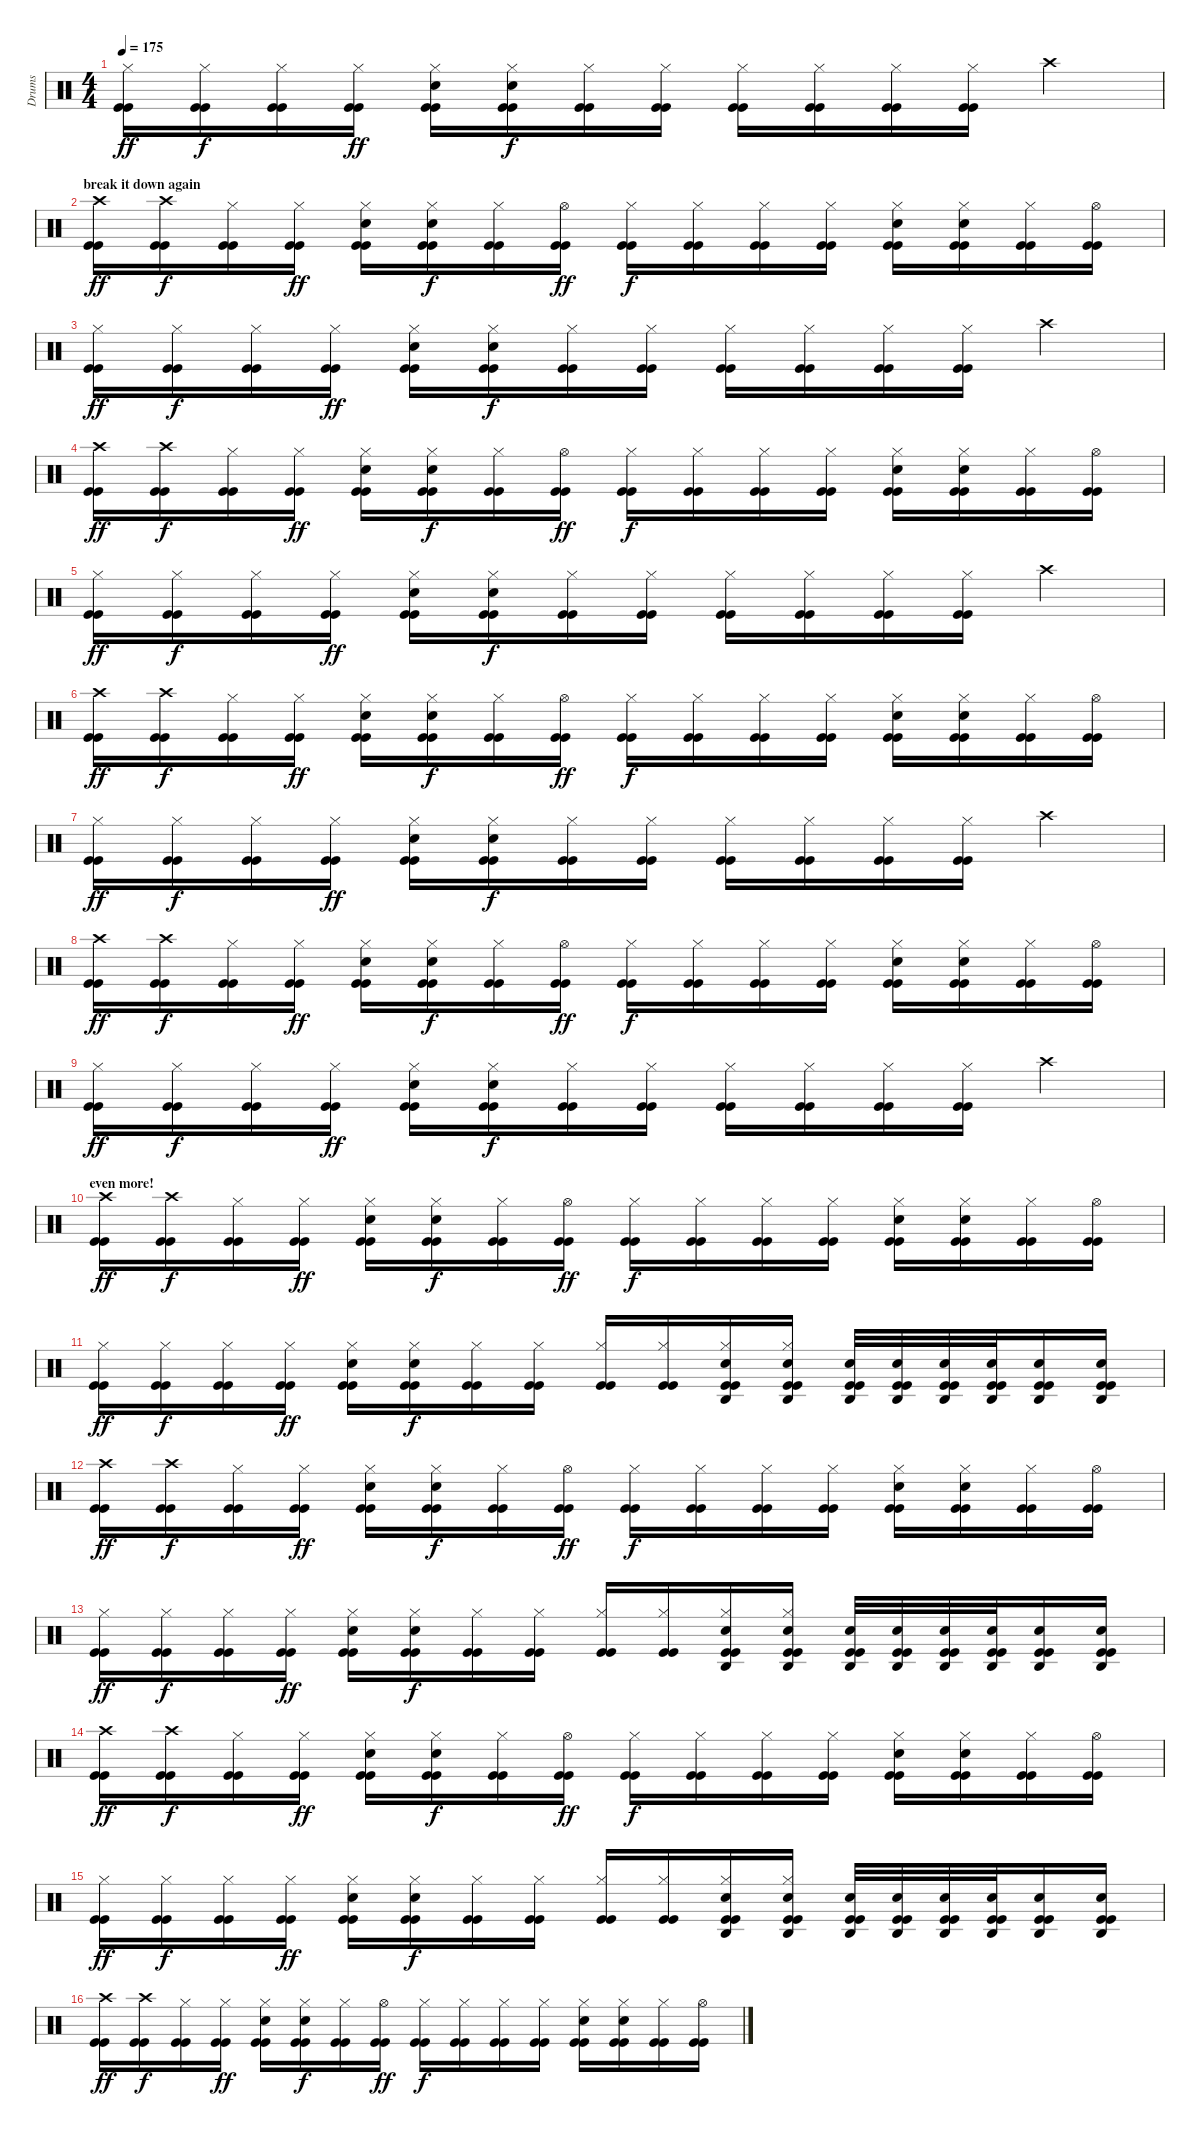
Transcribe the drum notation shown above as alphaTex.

\track ("Drums" "Drums") {instrument percussion}
\staff {score}
\articulation defaults
\ts (4 4)
\tempo 175
\clef neutral
\ks c
("Hi-Hat (closed)" "Kick (hit)" "Kick (hit)").16{dy ff} ("Hi-Hat (closed)" "Kick (hit)" "Kick (hit)").16{dy f} ("Hi-Hat (closed)" "Kick (hit)" "Kick (hit)").16 ("Hi-Hat (closed)" "Kick (hit)" "Kick (hit)").16{dy ff} ("Electric Snare (hit)" "Hi-Hat (closed)" "Kick (hit)" "Kick (hit)").16 ("Electric Snare (hit)" "Hi-Hat (closed)" "Kick (hit)" "Kick (hit)").16{dy f} ("Hi-Hat (closed)" "Kick (hit)" "Kick (hit)").16 ("Hi-Hat (closed)" "Kick (hit)" "Kick (hit)").16 ("Hi-Hat (closed)" "Kick (hit)" "Kick (hit)").16 ("Hi-Hat (closed)" "Kick (hit)" "Kick (hit)").16 ("Hi-Hat (closed)" "Kick (hit)" "Kick (hit)").16 ("Hi-Hat (closed)" "Kick (hit)" "Kick (hit)").16 "Crash high (hit)".4 |
\section ("" "break it down again")
("Crash high (hit)" "Kick (hit)" "Kick (hit)").16{dy ff} ("Crash high (hit)" "Kick (hit)" "Kick (hit)").16{dy f} ("Hi-Hat (closed)" "Kick (hit)" "Kick (hit)").16 ("Hi-Hat (closed)" "Kick (hit)" "Kick (hit)").16{dy ff} ("Electric Snare (hit)" "Hi-Hat (closed)" "Kick (hit)" "Kick (hit)").16 ("Electric Snare (hit)" "Hi-Hat (closed)" "Kick (hit)" "Kick (hit)").16{dy f} ("Hi-Hat (closed)" "Kick (hit)" "Kick (hit)").16 ("Hi-Hat (open)" "Kick (hit)" "Kick (hit)").16{dy ff} ("Hi-Hat (closed)" "Kick (hit)" "Kick (hit)").16{dy f} ("Hi-Hat (closed)" "Kick (hit)" "Kick (hit)").16 ("Hi-Hat (closed)" "Kick (hit)" "Kick (hit)").16 ("Hi-Hat (closed)" "Kick (hit)" "Kick (hit)").16 ("Electric Snare (hit)" "Hi-Hat (closed)" "Kick (hit)" "Kick (hit)").16 ("Electric Snare (hit)" "Hi-Hat (closed)" "Kick (hit)" "Kick (hit)").16 ("Hi-Hat (closed)" "Kick (hit)" "Kick (hit)").16 ("Hi-Hat (open)" "Kick (hit)" "Kick (hit)").16 |
("Hi-Hat (closed)" "Kick (hit)" "Kick (hit)").16{dy ff} ("Hi-Hat (closed)" "Kick (hit)" "Kick (hit)").16{dy f} ("Hi-Hat (closed)" "Kick (hit)" "Kick (hit)").16 ("Hi-Hat (closed)" "Kick (hit)" "Kick (hit)").16{dy ff} ("Electric Snare (hit)" "Hi-Hat (closed)" "Kick (hit)" "Kick (hit)").16 ("Electric Snare (hit)" "Hi-Hat (closed)" "Kick (hit)" "Kick (hit)").16{dy f} ("Hi-Hat (closed)" "Kick (hit)" "Kick (hit)").16 ("Hi-Hat (closed)" "Kick (hit)" "Kick (hit)").16 ("Hi-Hat (closed)" "Kick (hit)" "Kick (hit)").16 ("Hi-Hat (closed)" "Kick (hit)" "Kick (hit)").16 ("Hi-Hat (closed)" "Kick (hit)" "Kick (hit)").16 ("Hi-Hat (closed)" "Kick (hit)" "Kick (hit)").16 "Crash high (hit)".4 |
("Crash high (hit)" "Kick (hit)" "Kick (hit)").16{dy ff} ("Crash high (hit)" "Kick (hit)" "Kick (hit)").16{dy f} ("Hi-Hat (closed)" "Kick (hit)" "Kick (hit)").16 ("Hi-Hat (closed)" "Kick (hit)" "Kick (hit)").16{dy ff} ("Electric Snare (hit)" "Hi-Hat (closed)" "Kick (hit)" "Kick (hit)").16 ("Electric Snare (hit)" "Hi-Hat (closed)" "Kick (hit)" "Kick (hit)").16{dy f} ("Hi-Hat (closed)" "Kick (hit)" "Kick (hit)").16 ("Hi-Hat (open)" "Kick (hit)" "Kick (hit)").16{dy ff} ("Hi-Hat (closed)" "Kick (hit)" "Kick (hit)").16{dy f} ("Hi-Hat (closed)" "Kick (hit)" "Kick (hit)").16 ("Hi-Hat (closed)" "Kick (hit)" "Kick (hit)").16 ("Hi-Hat (closed)" "Kick (hit)" "Kick (hit)").16 ("Electric Snare (hit)" "Hi-Hat (closed)" "Kick (hit)" "Kick (hit)").16 ("Electric Snare (hit)" "Hi-Hat (closed)" "Kick (hit)" "Kick (hit)").16 ("Hi-Hat (closed)" "Kick (hit)" "Kick (hit)").16 ("Hi-Hat (open)" "Kick (hit)" "Kick (hit)").16 |
("Hi-Hat (closed)" "Kick (hit)" "Kick (hit)").16{dy ff} ("Hi-Hat (closed)" "Kick (hit)" "Kick (hit)").16{dy f} ("Hi-Hat (closed)" "Kick (hit)" "Kick (hit)").16 ("Hi-Hat (closed)" "Kick (hit)" "Kick (hit)").16{dy ff} ("Electric Snare (hit)" "Hi-Hat (closed)" "Kick (hit)" "Kick (hit)").16 ("Electric Snare (hit)" "Hi-Hat (closed)" "Kick (hit)" "Kick (hit)").16{dy f} ("Hi-Hat (closed)" "Kick (hit)" "Kick (hit)").16 ("Hi-Hat (closed)" "Kick (hit)" "Kick (hit)").16 ("Hi-Hat (closed)" "Kick (hit)" "Kick (hit)").16 ("Hi-Hat (closed)" "Kick (hit)" "Kick (hit)").16 ("Hi-Hat (closed)" "Kick (hit)" "Kick (hit)").16 ("Hi-Hat (closed)" "Kick (hit)" "Kick (hit)").16 "Crash high (hit)".4 |
("Crash high (hit)" "Kick (hit)" "Kick (hit)").16{dy ff} ("Crash high (hit)" "Kick (hit)" "Kick (hit)").16{dy f} ("Hi-Hat (closed)" "Kick (hit)" "Kick (hit)").16 ("Hi-Hat (closed)" "Kick (hit)" "Kick (hit)").16{dy ff} ("Electric Snare (hit)" "Hi-Hat (closed)" "Kick (hit)" "Kick (hit)").16 ("Electric Snare (hit)" "Hi-Hat (closed)" "Kick (hit)" "Kick (hit)").16{dy f} ("Hi-Hat (closed)" "Kick (hit)" "Kick (hit)").16 ("Hi-Hat (open)" "Kick (hit)" "Kick (hit)").16{dy ff} ("Hi-Hat (closed)" "Kick (hit)" "Kick (hit)").16{dy f} ("Hi-Hat (closed)" "Kick (hit)" "Kick (hit)").16 ("Hi-Hat (closed)" "Kick (hit)" "Kick (hit)").16 ("Hi-Hat (closed)" "Kick (hit)" "Kick (hit)").16 ("Electric Snare (hit)" "Hi-Hat (closed)" "Kick (hit)" "Kick (hit)").16 ("Electric Snare (hit)" "Hi-Hat (closed)" "Kick (hit)" "Kick (hit)").16 ("Hi-Hat (closed)" "Kick (hit)" "Kick (hit)").16 ("Hi-Hat (open)" "Kick (hit)" "Kick (hit)").16 |
("Hi-Hat (closed)" "Kick (hit)" "Kick (hit)").16{dy ff} ("Hi-Hat (closed)" "Kick (hit)" "Kick (hit)").16{dy f} ("Hi-Hat (closed)" "Kick (hit)" "Kick (hit)").16 ("Hi-Hat (closed)" "Kick (hit)" "Kick (hit)").16{dy ff} ("Electric Snare (hit)" "Hi-Hat (closed)" "Kick (hit)" "Kick (hit)").16 ("Electric Snare (hit)" "Hi-Hat (closed)" "Kick (hit)" "Kick (hit)").16{dy f} ("Hi-Hat (closed)" "Kick (hit)" "Kick (hit)").16 ("Hi-Hat (closed)" "Kick (hit)" "Kick (hit)").16 ("Hi-Hat (closed)" "Kick (hit)" "Kick (hit)").16 ("Hi-Hat (closed)" "Kick (hit)" "Kick (hit)").16 ("Hi-Hat (closed)" "Kick (hit)" "Kick (hit)").16 ("Hi-Hat (closed)" "Kick (hit)" "Kick (hit)").16 "Crash high (hit)".4 |
("Crash high (hit)" "Kick (hit)" "Kick (hit)").16{dy ff} ("Crash high (hit)" "Kick (hit)" "Kick (hit)").16{dy f} ("Hi-Hat (closed)" "Kick (hit)" "Kick (hit)").16 ("Hi-Hat (closed)" "Kick (hit)" "Kick (hit)").16{dy ff} ("Electric Snare (hit)" "Hi-Hat (closed)" "Kick (hit)" "Kick (hit)").16 ("Electric Snare (hit)" "Hi-Hat (closed)" "Kick (hit)" "Kick (hit)").16{dy f} ("Hi-Hat (closed)" "Kick (hit)" "Kick (hit)").16 ("Hi-Hat (open)" "Kick (hit)" "Kick (hit)").16{dy ff} ("Hi-Hat (closed)" "Kick (hit)" "Kick (hit)").16{dy f} ("Hi-Hat (closed)" "Kick (hit)" "Kick (hit)").16 ("Hi-Hat (closed)" "Kick (hit)" "Kick (hit)").16 ("Hi-Hat (closed)" "Kick (hit)" "Kick (hit)").16 ("Electric Snare (hit)" "Hi-Hat (closed)" "Kick (hit)" "Kick (hit)").16 ("Electric Snare (hit)" "Hi-Hat (closed)" "Kick (hit)" "Kick (hit)").16 ("Hi-Hat (closed)" "Kick (hit)" "Kick (hit)").16 ("Hi-Hat (open)" "Kick (hit)" "Kick (hit)").16 |
("Hi-Hat (closed)" "Kick (hit)" "Kick (hit)").16{dy ff} ("Hi-Hat (closed)" "Kick (hit)" "Kick (hit)").16{dy f} ("Hi-Hat (closed)" "Kick (hit)" "Kick (hit)").16 ("Hi-Hat (closed)" "Kick (hit)" "Kick (hit)").16{dy ff} ("Electric Snare (hit)" "Hi-Hat (closed)" "Kick (hit)" "Kick (hit)").16 ("Electric Snare (hit)" "Hi-Hat (closed)" "Kick (hit)" "Kick (hit)").16{dy f} ("Hi-Hat (closed)" "Kick (hit)" "Kick (hit)").16 ("Hi-Hat (closed)" "Kick (hit)" "Kick (hit)").16 ("Hi-Hat (closed)" "Kick (hit)" "Kick (hit)").16 ("Hi-Hat (closed)" "Kick (hit)" "Kick (hit)").16 ("Hi-Hat (closed)" "Kick (hit)" "Kick (hit)").16 ("Hi-Hat (closed)" "Kick (hit)" "Kick (hit)").16 "Crash high (hit)".4 |
\section ("" "even more!")
("Crash high (hit)" "Kick (hit)" "Kick (hit)").16{dy ff} ("Crash high (hit)" "Kick (hit)" "Kick (hit)").16{dy f} ("Hi-Hat (closed)" "Kick (hit)" "Kick (hit)").16 ("Hi-Hat (closed)" "Kick (hit)" "Kick (hit)").16{dy ff} ("Electric Snare (hit)" "Hi-Hat (closed)" "Kick (hit)" "Kick (hit)").16 ("Electric Snare (hit)" "Hi-Hat (closed)" "Kick (hit)" "Kick (hit)").16{dy f} ("Hi-Hat (closed)" "Kick (hit)" "Kick (hit)").16 ("Hi-Hat (open)" "Kick (hit)" "Kick (hit)").16{dy ff} ("Hi-Hat (closed)" "Kick (hit)" "Kick (hit)").16{dy f} ("Hi-Hat (closed)" "Kick (hit)" "Kick (hit)").16 ("Hi-Hat (closed)" "Kick (hit)" "Kick (hit)").16 ("Hi-Hat (closed)" "Kick (hit)" "Kick (hit)").16 ("Electric Snare (hit)" "Hi-Hat (closed)" "Kick (hit)" "Kick (hit)").16 ("Electric Snare (hit)" "Hi-Hat (closed)" "Kick (hit)" "Kick (hit)").16 ("Hi-Hat (closed)" "Kick (hit)" "Kick (hit)").16 ("Hi-Hat (open)" "Kick (hit)" "Kick (hit)").16 |
("Hi-Hat (closed)" "Kick (hit)" "Kick (hit)").16{dy ff} ("Hi-Hat (closed)" "Kick (hit)" "Kick (hit)").16{dy f} ("Hi-Hat (closed)" "Kick (hit)" "Kick (hit)").16 ("Hi-Hat (closed)" "Kick (hit)" "Kick (hit)").16{dy ff} ("Electric Snare (hit)" "Hi-Hat (closed)" "Kick (hit)" "Kick (hit)").16 ("Electric Snare (hit)" "Hi-Hat (closed)" "Kick (hit)" "Kick (hit)").16{dy f} ("Hi-Hat (closed)" "Kick (hit)" "Kick (hit)").16 ("Hi-Hat (closed)" "Kick (hit)" "Kick (hit)").16 ("Hi-Hat (closed)" "Kick (hit)" "Kick (hit)").16 ("Hi-Hat (closed)" "Kick (hit)" "Kick (hit)").16 ("Agogo high (hit)" "Electric Snare (hit)" "Hi-Hat (closed)" "Kick (hit)" "Kick (hit)").16 ("Agogo high (hit)" "Electric Snare (hit)" "Hi-Hat (closed)" "Kick (hit)" "Kick (hit)").16 ("Agogo high (hit)" "Electric Snare (hit)" "Kick (hit)" "Kick (hit)").32 ("Agogo high (hit)" "Electric Snare (hit)" "Kick (hit)" "Kick (hit)").32 ("Agogo high (hit)" "Electric Snare (hit)" "Kick (hit)" "Kick (hit)").32 ("Agogo high (hit)" "Electric Snare (hit)" "Kick (hit)" "Kick (hit)").32 ("Agogo high (hit)" "Electric Snare (hit)" "Kick (hit)" "Kick (hit)").16 ("Agogo high (hit)" "Electric Snare (hit)" "Kick (hit)" "Kick (hit)").16 |
("Crash high (hit)" "Kick (hit)" "Kick (hit)").16{dy ff} ("Crash high (hit)" "Kick (hit)" "Kick (hit)").16{dy f} ("Hi-Hat (closed)" "Kick (hit)" "Kick (hit)").16 ("Hi-Hat (closed)" "Kick (hit)" "Kick (hit)").16{dy ff} ("Electric Snare (hit)" "Hi-Hat (closed)" "Kick (hit)" "Kick (hit)").16 ("Electric Snare (hit)" "Hi-Hat (closed)" "Kick (hit)" "Kick (hit)").16{dy f} ("Hi-Hat (closed)" "Kick (hit)" "Kick (hit)").16 ("Hi-Hat (open)" "Kick (hit)" "Kick (hit)").16{dy ff} ("Hi-Hat (closed)" "Kick (hit)" "Kick (hit)").16{dy f} ("Hi-Hat (closed)" "Kick (hit)" "Kick (hit)").16 ("Hi-Hat (closed)" "Kick (hit)" "Kick (hit)").16 ("Hi-Hat (closed)" "Kick (hit)" "Kick (hit)").16 ("Electric Snare (hit)" "Hi-Hat (closed)" "Kick (hit)" "Kick (hit)").16 ("Electric Snare (hit)" "Hi-Hat (closed)" "Kick (hit)" "Kick (hit)").16 ("Hi-Hat (closed)" "Kick (hit)" "Kick (hit)").16 ("Hi-Hat (open)" "Kick (hit)" "Kick (hit)").16 |
("Hi-Hat (closed)" "Kick (hit)" "Kick (hit)").16{dy ff} ("Hi-Hat (closed)" "Kick (hit)" "Kick (hit)").16{dy f} ("Hi-Hat (closed)" "Kick (hit)" "Kick (hit)").16 ("Hi-Hat (closed)" "Kick (hit)" "Kick (hit)").16{dy ff} ("Electric Snare (hit)" "Hi-Hat (closed)" "Kick (hit)" "Kick (hit)").16 ("Electric Snare (hit)" "Hi-Hat (closed)" "Kick (hit)" "Kick (hit)").16{dy f} ("Hi-Hat (closed)" "Kick (hit)" "Kick (hit)").16 ("Hi-Hat (closed)" "Kick (hit)" "Kick (hit)").16 ("Hi-Hat (closed)" "Kick (hit)" "Kick (hit)").16 ("Hi-Hat (closed)" "Kick (hit)" "Kick (hit)").16 ("Agogo high (hit)" "Electric Snare (hit)" "Hi-Hat (closed)" "Kick (hit)" "Kick (hit)").16 ("Agogo high (hit)" "Electric Snare (hit)" "Hi-Hat (closed)" "Kick (hit)" "Kick (hit)").16 ("Agogo high (hit)" "Electric Snare (hit)" "Kick (hit)" "Kick (hit)").32 ("Agogo high (hit)" "Electric Snare (hit)" "Kick (hit)" "Kick (hit)").32 ("Agogo high (hit)" "Electric Snare (hit)" "Kick (hit)" "Kick (hit)").32 ("Agogo high (hit)" "Electric Snare (hit)" "Kick (hit)" "Kick (hit)").32 ("Agogo high (hit)" "Electric Snare (hit)" "Kick (hit)" "Kick (hit)").16 ("Agogo high (hit)" "Electric Snare (hit)" "Kick (hit)" "Kick (hit)").16 |
("Crash high (hit)" "Kick (hit)" "Kick (hit)").16{dy ff} ("Crash high (hit)" "Kick (hit)" "Kick (hit)").16{dy f} ("Hi-Hat (closed)" "Kick (hit)" "Kick (hit)").16 ("Hi-Hat (closed)" "Kick (hit)" "Kick (hit)").16{dy ff} ("Electric Snare (hit)" "Hi-Hat (closed)" "Kick (hit)" "Kick (hit)").16 ("Electric Snare (hit)" "Hi-Hat (closed)" "Kick (hit)" "Kick (hit)").16{dy f} ("Hi-Hat (closed)" "Kick (hit)" "Kick (hit)").16 ("Hi-Hat (open)" "Kick (hit)" "Kick (hit)").16{dy ff} ("Hi-Hat (closed)" "Kick (hit)" "Kick (hit)").16{dy f} ("Hi-Hat (closed)" "Kick (hit)" "Kick (hit)").16 ("Hi-Hat (closed)" "Kick (hit)" "Kick (hit)").16 ("Hi-Hat (closed)" "Kick (hit)" "Kick (hit)").16 ("Electric Snare (hit)" "Hi-Hat (closed)" "Kick (hit)" "Kick (hit)").16 ("Electric Snare (hit)" "Hi-Hat (closed)" "Kick (hit)" "Kick (hit)").16 ("Hi-Hat (closed)" "Kick (hit)" "Kick (hit)").16 ("Hi-Hat (open)" "Kick (hit)" "Kick (hit)").16 |
("Hi-Hat (closed)" "Kick (hit)" "Kick (hit)").16{dy ff} ("Hi-Hat (closed)" "Kick (hit)" "Kick (hit)").16{dy f} ("Hi-Hat (closed)" "Kick (hit)" "Kick (hit)").16 ("Hi-Hat (closed)" "Kick (hit)" "Kick (hit)").16{dy ff} ("Electric Snare (hit)" "Hi-Hat (closed)" "Kick (hit)" "Kick (hit)").16 ("Electric Snare (hit)" "Hi-Hat (closed)" "Kick (hit)" "Kick (hit)").16{dy f} ("Hi-Hat (closed)" "Kick (hit)" "Kick (hit)").16 ("Hi-Hat (closed)" "Kick (hit)" "Kick (hit)").16 ("Hi-Hat (closed)" "Kick (hit)" "Kick (hit)").16 ("Hi-Hat (closed)" "Kick (hit)" "Kick (hit)").16 ("Agogo high (hit)" "Electric Snare (hit)" "Hi-Hat (closed)" "Kick (hit)" "Kick (hit)").16 ("Agogo high (hit)" "Electric Snare (hit)" "Hi-Hat (closed)" "Kick (hit)" "Kick (hit)").16 ("Agogo high (hit)" "Electric Snare (hit)" "Kick (hit)" "Kick (hit)").32 ("Agogo high (hit)" "Electric Snare (hit)" "Kick (hit)" "Kick (hit)").32 ("Agogo high (hit)" "Electric Snare (hit)" "Kick (hit)" "Kick (hit)").32 ("Agogo high (hit)" "Electric Snare (hit)" "Kick (hit)" "Kick (hit)").32 ("Agogo high (hit)" "Electric Snare (hit)" "Kick (hit)" "Kick (hit)").16 ("Agogo high (hit)" "Electric Snare (hit)" "Kick (hit)" "Kick (hit)").16 |
("Crash high (hit)" "Kick (hit)" "Kick (hit)").16{dy ff} ("Crash high (hit)" "Kick (hit)" "Kick (hit)").16{dy f} ("Hi-Hat (closed)" "Kick (hit)" "Kick (hit)").16 ("Hi-Hat (closed)" "Kick (hit)" "Kick (hit)").16{dy ff} ("Electric Snare (hit)" "Hi-Hat (closed)" "Kick (hit)" "Kick (hit)").16 ("Electric Snare (hit)" "Hi-Hat (closed)" "Kick (hit)" "Kick (hit)").16{dy f} ("Hi-Hat (closed)" "Kick (hit)" "Kick (hit)").16 ("Hi-Hat (open)" "Kick (hit)" "Kick (hit)").16{dy ff} ("Hi-Hat (closed)" "Kick (hit)" "Kick (hit)").16{dy f} ("Hi-Hat (closed)" "Kick (hit)" "Kick (hit)").16 ("Hi-Hat (closed)" "Kick (hit)" "Kick (hit)").16 ("Hi-Hat (closed)" "Kick (hit)" "Kick (hit)").16 ("Electric Snare (hit)" "Hi-Hat (closed)" "Kick (hit)" "Kick (hit)").16 ("Electric Snare (hit)" "Hi-Hat (closed)" "Kick (hit)" "Kick (hit)").16 ("Hi-Hat (closed)" "Kick (hit)" "Kick (hit)").16 ("Hi-Hat (open)" "Kick (hit)" "Kick (hit)").16
